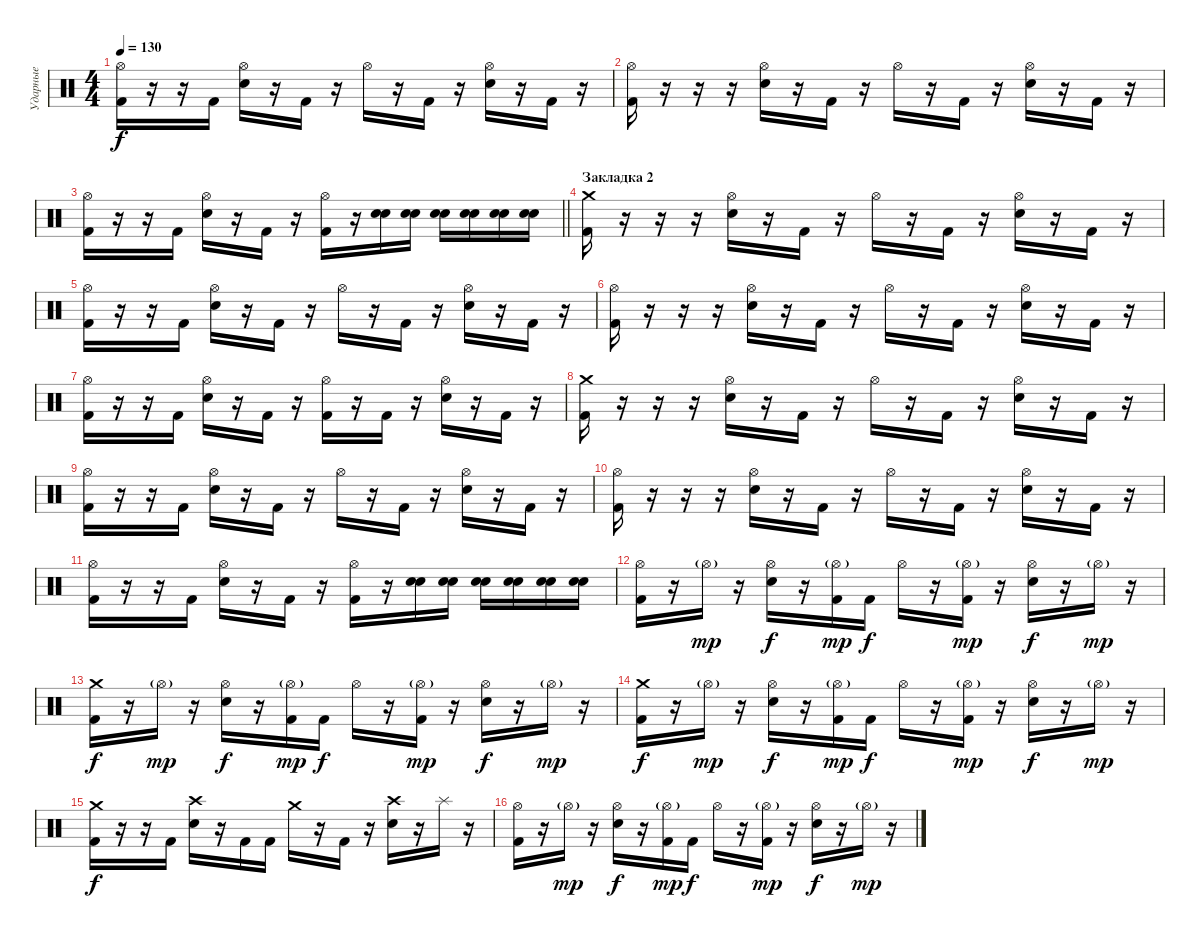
\track ("Ударные" "Ударные") {instrument percussion}
\staff {score}
\articulation defaults
\ts (4 4)
\tempo 130
\clef neutral
\ks c
("Hi-Hat (open)" "Kick (hit) 2").16{dy f} r.16 r.16 "Kick (hit) 2".16 ("Hi-Hat (open)" "Snare (hit) 2").16 r.16 "Kick (hit) 2".16 r.16 "Hi-Hat (open)".16 r.16 "Kick (hit) 2".16 r.16 ("Hi-Hat (open)" "Snare (hit) 2").16 r.16 "Kick (hit) 2".16 r.16 |
("Hi-Hat (open)" "Kick (hit) 2").16 r.16 r.16 r.16 ("Hi-Hat (open)" "Snare (hit) 2").16 r.16 "Kick (hit) 2".16 r.16 "Hi-Hat (open)".16 r.16 "Kick (hit) 2".16 r.16 ("Hi-Hat (open)" "Snare (hit) 2").16 r.16 "Kick (hit) 2".16 r.16 |
\barLineRight lightlight
("Hi-Hat (open)" "Kick (hit) 2").16 r.16 r.16 "Kick (hit) 2".16 ("Hi-Hat (open)" "Snare (hit) 2").16 r.16 "Kick (hit) 2".16 r.16 ("Hi-Hat (open)" "Kick (hit) 2").16 r.16 ("Snare (hit) 2" "Snare (hit) 2").16 ("Snare (hit) 2" "Snare (hit) 2").16 ("Electric Snare (hit)" "Snare (hit) 2").16 ("Electric Snare (hit)" "Snare (hit) 2").16 ("Electric Snare (hit)" "Snare (hit) 2").16 ("Electric Snare (hit)" "Snare (hit) 2").16 |
\section ("" "Закладка 2")
("Crash medium (hit)" "Kick (hit) 2").16 r.16 r.16 r.16 ("Hi-Hat (open)" "Snare (hit) 2").16 r.16 "Kick (hit) 2".16 r.16 "Hi-Hat (open)".16 r.16 "Kick (hit) 2".16 r.16 ("Hi-Hat (open)" "Snare (hit) 2").16 r.16 "Kick (hit) 2".16 r.16 |
("Hi-Hat (open)" "Kick (hit) 2").16 r.16 r.16 "Kick (hit) 2".16 ("Hi-Hat (open)" "Snare (hit) 2").16 r.16 "Kick (hit) 2".16 r.16 "Hi-Hat (open)".16 r.16 "Kick (hit) 2".16 r.16 ("Hi-Hat (open)" "Snare (hit) 2").16 r.16 "Kick (hit) 2".16 r.16 |
("Hi-Hat (open)" "Kick (hit) 2").16 r.16 r.16 r.16 ("Hi-Hat (open)" "Snare (hit) 2").16 r.16 "Kick (hit) 2".16 r.16 "Hi-Hat (open)".16 r.16 "Kick (hit) 2".16 r.16 ("Hi-Hat (open)" "Snare (hit) 2").16 r.16 "Kick (hit) 2".16 r.16 |
("Hi-Hat (open)" "Kick (hit) 2").16 r.16 r.16 "Kick (hit) 2".16 ("Hi-Hat (open)" "Snare (hit) 2").16 r.16 "Kick (hit) 2".16 r.16 ("Hi-Hat (open)" "Kick (hit) 2").16 r.16 "Kick (hit) 2".16 r.16 ("Hi-Hat (open)" "Snare (hit) 2").16 r.16 "Kick (hit) 2".16 r.16 |
("Crash medium (hit)" "Kick (hit) 2").16 r.16 r.16 r.16 ("Hi-Hat (open)" "Snare (hit) 2").16 r.16 "Kick (hit) 2".16 r.16 "Hi-Hat (open)".16 r.16 "Kick (hit) 2".16 r.16 ("Hi-Hat (open)" "Snare (hit) 2").16 r.16 "Kick (hit) 2".16 r.16 |
("Hi-Hat (open)" "Kick (hit) 2").16 r.16 r.16 "Kick (hit) 2".16 ("Hi-Hat (open)" "Snare (hit) 2").16 r.16 "Kick (hit) 2".16 r.16 "Hi-Hat (open)".16 r.16 "Kick (hit) 2".16 r.16 ("Hi-Hat (open)" "Snare (hit) 2").16 r.16 "Kick (hit) 2".16 r.16 |
("Hi-Hat (open)" "Kick (hit) 2").16 r.16 r.16 r.16 ("Hi-Hat (open)" "Snare (hit) 2").16 r.16 "Kick (hit) 2".16 r.16 "Hi-Hat (open)".16 r.16 "Kick (hit) 2".16 r.16 ("Hi-Hat (open)" "Snare (hit) 2").16 r.16 "Kick (hit) 2".16 r.16 |
("Hi-Hat (open)" "Kick (hit) 2").16 r.16 r.16 "Kick (hit) 2".16 ("Hi-Hat (open)" "Snare (hit) 2").16 r.16 "Kick (hit) 2".16 r.16 ("Hi-Hat (open)" "Kick (hit) 2").16 r.16 ("Snare (hit) 2" "Snare (hit) 2").16 ("Snare (hit) 2" "Snare (hit) 2").16 ("Electric Snare (hit)" "Snare (hit) 2").16 ("Electric Snare (hit)" "Snare (hit) 2").16 ("Electric Snare (hit)" "Snare (hit) 2").16 ("Electric Snare (hit)" "Snare (hit) 2").16 |
("Hi-Hat (open)" "Kick (hit) 2").16 r.16 "Hi-Hat (open)"{g}.16{dy mp} r.16 ("Hi-Hat (open)" "Snare (hit) 2").16{dy f} r.16 ("Hi-Hat (open)"{g} "Kick (hit) 2").16{dy mp} "Kick (hit) 2".16{dy f} "Hi-Hat (open)".16 r.16 ("Hi-Hat (open)"{g} "Kick (hit) 2").16{dy mp} r.16 ("Hi-Hat (open)" "Snare (hit) 2").16{dy f} r.16 "Hi-Hat (open)"{g}.16{dy mp} r.16 |
("Crash medium (hit)" "Kick (hit) 2").16{dy f} r.16 "Hi-Hat (open)"{g}.16{dy mp} r.16 ("Hi-Hat (open)" "Snare (hit) 2").16{dy f} r.16 ("Hi-Hat (open)"{g} "Kick (hit) 2").16{dy mp} "Kick (hit) 2".16{dy f} "Hi-Hat (open)".16 r.16 ("Hi-Hat (open)"{g} "Kick (hit) 2").16{dy mp} r.16 ("Hi-Hat (open)" "Snare (hit) 2").16{dy f} r.16 "Hi-Hat (open)"{g}.16{dy mp} r.16 |
("Crash medium (hit)" "Kick (hit) 2").16{dy f} r.16 "Hi-Hat (open)"{g}.16{dy mp} r.16 ("Hi-Hat (open)" "Snare (hit) 2").16{dy f} r.16 ("Hi-Hat (open)"{g} "Kick (hit) 2").16{dy mp} "Kick (hit) 2".16{dy f} "Hi-Hat (open)".16 r.16 ("Hi-Hat (open)"{g} "Kick (hit) 2").16{dy mp} r.16 ("Hi-Hat (open)" "Snare (hit) 2").16{dy f} r.16 "Hi-Hat (open)"{g}.16{dy mp} r.16 |
("Crash medium (hit)" "Kick (hit) 2").16{dy f} r.16 r.16 "Kick (hit) 2".16 ("Crash high (hit)" "Snare (hit) 2").16 r.16 "Kick (hit) 2".16 "Kick (hit) 2".16 "Crash medium (hit)".16 r.16 "Kick (hit) 2".16 r.16 ("Crash high (hit)" "Snare (hit) 2").16 r.16 "Splash (hit)".16 r.16 |
("Hi-Hat (open)" "Kick (hit) 2").16 r.16 "Hi-Hat (open)"{g}.16{dy mp} r.16 ("Hi-Hat (open)" "Snare (hit) 2").16{dy f} r.16 ("Hi-Hat (open)"{g} "Kick (hit) 2").16{dy mp} "Kick (hit) 2".16{dy f} "Hi-Hat (open)".16 r.16 ("Hi-Hat (open)"{g} "Kick (hit) 2").16{dy mp} r.16 ("Hi-Hat (open)" "Snare (hit) 2").16{dy f} r.16 "Hi-Hat (open)"{g}.16{dy mp} r.16
